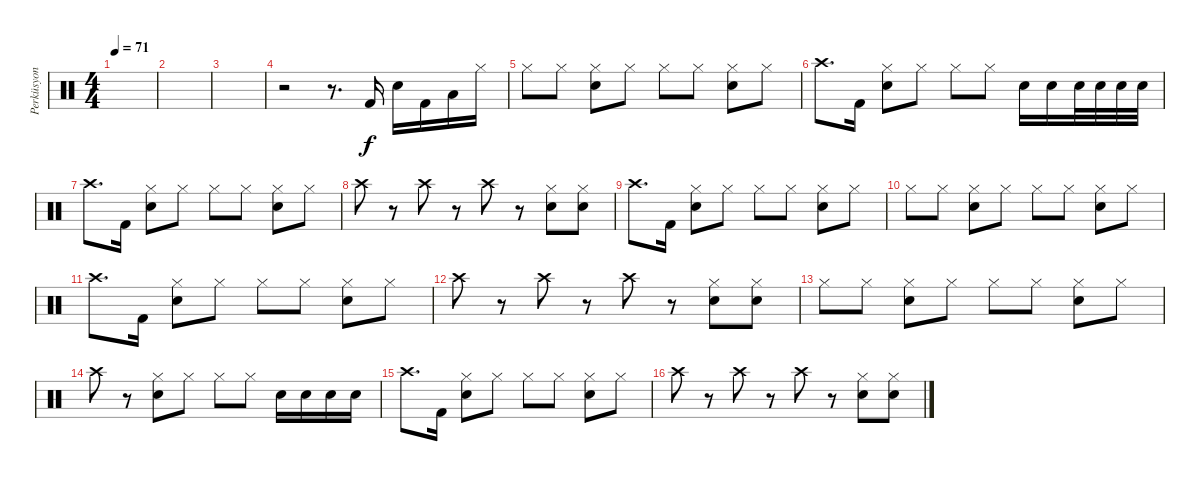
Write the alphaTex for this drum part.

\track ("Perküsyon" "Perküsyon") {instrument percussion}
\staff {score}
\articulation defaults
\ts (4 4)
\tempo 71
\clef neutral
\ks c
|
|
|
r.2 r.8{d} "Kick (hit) 2".16 "Electric Snare (hit)".16 "Kick (hit) 2".16 "Low Tom (hit)".16 "Hi-Hat (closed)".16 |
"Hi-Hat (closed)".8 "Hi-Hat (closed)".8 ("Hi-Hat (closed)" "Electric Snare (hit)").8 "Hi-Hat (closed)".8 "Hi-Hat (closed)".8 "Hi-Hat (closed)".8 ("Hi-Hat (closed)" "Electric Snare (hit)").8 "Hi-Hat (closed)".8 |
"Crash high (hit)".8{d} "Kick (hit) 2".16 ("Hi-Hat (closed)" "Electric Snare (hit)").8 "Hi-Hat (closed)".8 "Hi-Hat (closed)".8 "Hi-Hat (closed)".8 "Electric Snare (hit)".16 "Electric Snare (hit)".16 "Electric Snare (hit)".32 "Electric Snare (hit)".32 "Electric Snare (hit)".32 "Electric Snare (hit)".32 |
"Crash high (hit)".8{d} "Kick (hit) 2".16 ("Hi-Hat (closed)" "Electric Snare (hit)").8 "Hi-Hat (closed)".8 "Hi-Hat (closed)".8 "Hi-Hat (closed)".8 ("Hi-Hat (closed)" "Electric Snare (hit)").8 "Hi-Hat (closed)".8 |
"Crash high (hit)".8 r.8 "Crash high (hit)".8 r.8 "Crash high (hit)".8 r.8 ("Hi-Hat (closed)" "Electric Snare (hit)").8 ("Hi-Hat (closed)" "Electric Snare (hit)").8 |
"Crash high (hit)".8{d} "Kick (hit) 2".16 ("Hi-Hat (closed)" "Electric Snare (hit)").8 "Hi-Hat (closed)".8 "Hi-Hat (closed)".8 "Hi-Hat (closed)".8 ("Hi-Hat (closed)" "Electric Snare (hit)").8 "Hi-Hat (closed)".8 |
"Hi-Hat (closed)".8 "Hi-Hat (closed)".8 ("Hi-Hat (closed)" "Electric Snare (hit)").8 "Hi-Hat (closed)".8 "Hi-Hat (closed)".8 "Hi-Hat (closed)".8 ("Hi-Hat (closed)" "Electric Snare (hit)").8 "Hi-Hat (closed)".8 |
"Crash high (hit)".8{d} "Kick (hit) 2".16 ("Hi-Hat (closed)" "Electric Snare (hit)").8 "Hi-Hat (closed)".8 "Hi-Hat (closed)".8 "Hi-Hat (closed)".8 ("Hi-Hat (closed)" "Electric Snare (hit)").8 "Hi-Hat (closed)".8 |
"Crash high (hit)".8 r.8 "Crash high (hit)".8 r.8 "Crash high (hit)".8 r.8 ("Hi-Hat (closed)" "Electric Snare (hit)").8 ("Hi-Hat (closed)" "Electric Snare (hit)").8 |
"Hi-Hat (closed)".8 "Hi-Hat (closed)".8 ("Hi-Hat (closed)" "Electric Snare (hit)").8 "Hi-Hat (closed)".8 "Hi-Hat (closed)".8 "Hi-Hat (closed)".8 ("Hi-Hat (closed)" "Electric Snare (hit)").8 "Hi-Hat (closed)".8 |
"Crash high (hit)".8 r.8 ("Hi-Hat (closed)" "Electric Snare (hit)").8 "Hi-Hat (closed)".8 "Hi-Hat (closed)".8 "Hi-Hat (closed)".8 "Electric Snare (hit)".16 "Electric Snare (hit)".16 "Electric Snare (hit)".16 "Electric Snare (hit)".16 |
"Crash high (hit)".8{d} "Kick (hit) 2".16 ("Hi-Hat (closed)" "Electric Snare (hit)").8 "Hi-Hat (closed)".8 "Hi-Hat (closed)".8 "Hi-Hat (closed)".8 ("Hi-Hat (closed)" "Electric Snare (hit)").8 "Hi-Hat (closed)".8 |
"Crash high (hit)".8 r.8 "Crash high (hit)".8 r.8 "Crash high (hit)".8 r.8 ("Hi-Hat (closed)" "Electric Snare (hit)").8 ("Hi-Hat (closed)" "Electric Snare (hit)").8
